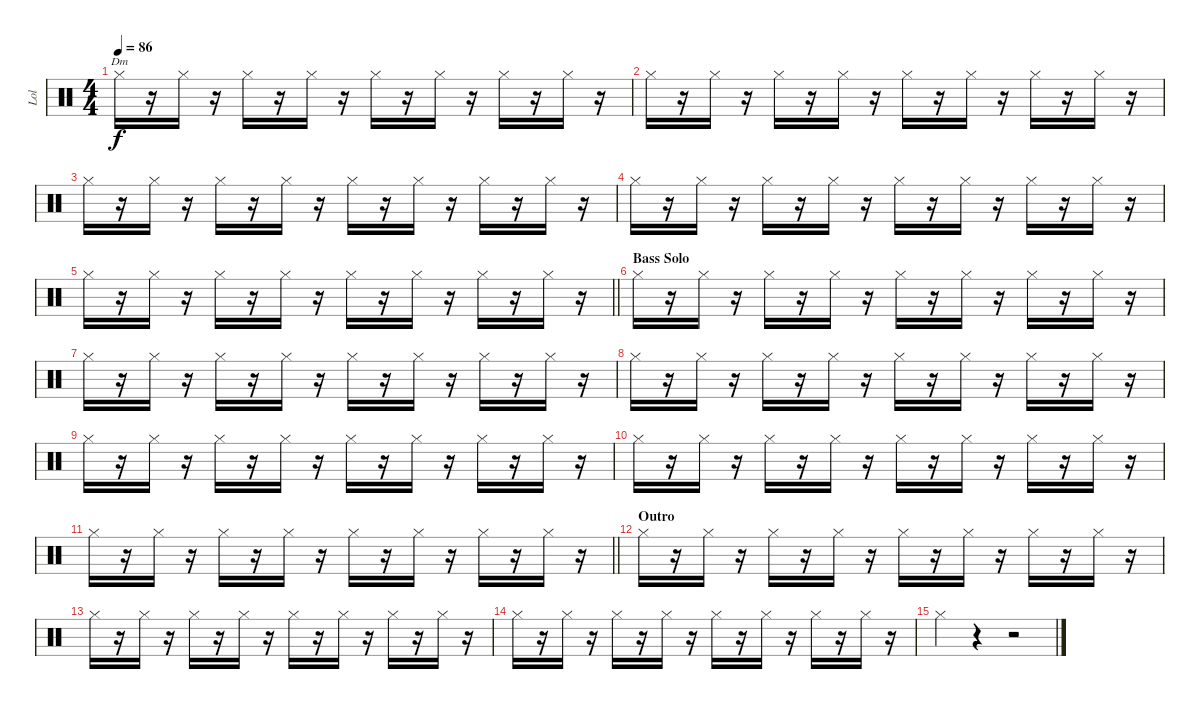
\track ("Lol" "Lol") {instrument percussion}
\staff {score}
\articulation defaults
\chord ("Dm")
\ts (4 4)
\tempo 86
\clef neutral
\ks c "Hi-Hat (closed)".16{ch "Dm" dy f}
r.16 "Hi-Hat (closed)".16 r.16 "Hi-Hat (closed)".16 r.16 "Hi-Hat (closed)".16 r.16 "Hi-Hat (closed)".16 r.16 "Hi-Hat (closed)".16 r.16 "Hi-Hat (closed)".16 r.16 "Hi-Hat (closed)".16 r.16 |
"Hi-Hat (closed)".16 r.16 "Hi-Hat (closed)".16 r.16 "Hi-Hat (closed)".16 r.16 "Hi-Hat (closed)".16 r.16 "Hi-Hat (closed)".16 r.16 "Hi-Hat (closed)".16 r.16 "Hi-Hat (closed)".16 r.16 "Hi-Hat (closed)".16 r.16 |
"Hi-Hat (closed)".16 r.16 "Hi-Hat (closed)".16 r.16 "Hi-Hat (closed)".16 r.16 "Hi-Hat (closed)".16 r.16 "Hi-Hat (closed)".16 r.16 "Hi-Hat (closed)".16 r.16 "Hi-Hat (closed)".16 r.16 "Hi-Hat (closed)".16 r.16 |
"Hi-Hat (closed)".16 r.16 "Hi-Hat (closed)".16 r.16 "Hi-Hat (closed)".16 r.16 "Hi-Hat (closed)".16 r.16 "Hi-Hat (closed)".16 r.16 "Hi-Hat (closed)".16 r.16 "Hi-Hat (closed)".16 r.16 "Hi-Hat (closed)".16 r.16 |
\barLineRight lightlight "Hi-Hat (closed)".16
r.16 "Hi-Hat (closed)".16 r.16 "Hi-Hat (closed)".16 r.16 "Hi-Hat (closed)".16 r.16 "Hi-Hat (closed)".16 r.16 "Hi-Hat (closed)".16 r.16 "Hi-Hat (closed)".16 r.16 "Hi-Hat (closed)".16 r.16 |
\section ("" "Bass Solo")
"Hi-Hat (closed)".16 r.16 "Hi-Hat (closed)".16 r.16 "Hi-Hat (closed)".16 r.16 "Hi-Hat (closed)".16 r.16 "Hi-Hat (closed)".16 r.16 "Hi-Hat (closed)".16 r.16 "Hi-Hat (closed)".16 r.16 "Hi-Hat (closed)".16 r.16 |
"Hi-Hat (closed)".16 r.16 "Hi-Hat (closed)".16 r.16 "Hi-Hat (closed)".16 r.16 "Hi-Hat (closed)".16 r.16 "Hi-Hat (closed)".16 r.16 "Hi-Hat (closed)".16 r.16 "Hi-Hat (closed)".16 r.16 "Hi-Hat (closed)".16 r.16 |
"Hi-Hat (closed)".16 r.16 "Hi-Hat (closed)".16 r.16 "Hi-Hat (closed)".16 r.16 "Hi-Hat (closed)".16 r.16 "Hi-Hat (closed)".16 r.16 "Hi-Hat (closed)".16 r.16 "Hi-Hat (closed)".16 r.16 "Hi-Hat (closed)".16 r.16 |
"Hi-Hat (closed)".16 r.16 "Hi-Hat (closed)".16 r.16 "Hi-Hat (closed)".16 r.16 "Hi-Hat (closed)".16 r.16 "Hi-Hat (closed)".16 r.16 "Hi-Hat (closed)".16 r.16 "Hi-Hat (closed)".16 r.16 "Hi-Hat (closed)".16 r.16 |
"Hi-Hat (closed)".16 r.16 "Hi-Hat (closed)".16 r.16 "Hi-Hat (closed)".16 r.16 "Hi-Hat (closed)".16 r.16 "Hi-Hat (closed)".16 r.16 "Hi-Hat (closed)".16 r.16 "Hi-Hat (closed)".16 r.16 "Hi-Hat (closed)".16 r.16 |
\barLineRight lightlight "Hi-Hat (closed)".16
r.16 "Hi-Hat (closed)".16 r.16 "Hi-Hat (closed)".16 r.16 "Hi-Hat (closed)".16 r.16 "Hi-Hat (closed)".16 r.16 "Hi-Hat (closed)".16 r.16 "Hi-Hat (closed)".16 r.16 "Hi-Hat (closed)".16 r.16 |
\section ("" "Outro")
"Hi-Hat (closed)".16 r.16 "Hi-Hat (closed)".16 r.16 "Hi-Hat (closed)".16 r.16 "Hi-Hat (closed)".16 r.16 "Hi-Hat (closed)".16 r.16 "Hi-Hat (closed)".16 r.16 "Hi-Hat (closed)".16 r.16 "Hi-Hat (closed)".16 r.16 |
"Hi-Hat (closed)".16 r.16 "Hi-Hat (closed)".16 r.16 "Hi-Hat (closed)".16 r.16 "Hi-Hat (closed)".16 r.16 "Hi-Hat (closed)".16 r.16 "Hi-Hat (closed)".16 r.16 "Hi-Hat (closed)".16 r.16 "Hi-Hat (closed)".16 r.16 |
"Hi-Hat (closed)".16 r.16 "Hi-Hat (closed)".16 r.16 "Hi-Hat (closed)".16 r.16 "Hi-Hat (closed)".16 r.16 "Hi-Hat (closed)".16 r.16 "Hi-Hat (closed)".16 r.16 "Hi-Hat (closed)".16 r.16 "Hi-Hat (closed)".16 r.16 |
"Hi-Hat (closed)".4 r.4 r.2
